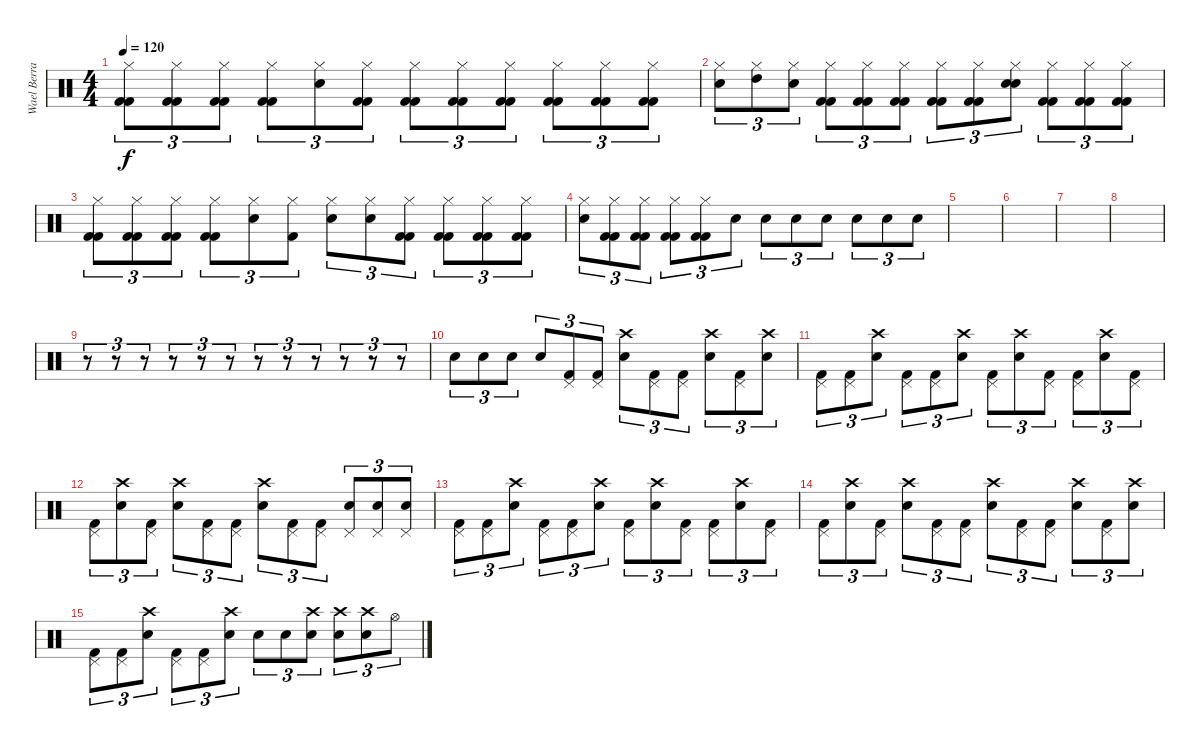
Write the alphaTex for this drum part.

\track ("Wael Berrais" "Wael Berra") {instrument percussion}
\staff {score}
\articulation defaults
\ts (4 4)
\tempo 120
\clef neutral
\ks c
("Hi-Hat (closed)" "Kick (hit) 2" "Kick (hit) 2").8{tu (3 2) dy f} ("Hi-Hat (closed)" "Kick (hit) 2" "Kick (hit) 2").8{tu (3 2)} ("Hi-Hat (closed)" "Kick (hit) 2" "Kick (hit) 2").8{tu (3 2)} ("Hi-Hat (closed)" "Kick (hit) 2" "Kick (hit) 2").8{tu (3 2)} ("Electric Snare (hit)" "Hi-Hat (closed)").8{tu (3 2)} ("Hi-Hat (closed)" "Kick (hit) 2" "Kick (hit) 2").8{tu (3 2)} ("Hi-Hat (closed)" "Kick (hit) 2" "Kick (hit) 2").8{tu (3 2)} ("Hi-Hat (closed)" "Kick (hit) 2" "Kick (hit) 2").8{tu (3 2)} ("Hi-Hat (closed)" "Kick (hit) 2" "Kick (hit) 2").8{tu (3 2)} ("Hi-Hat (closed)" "Kick (hit) 2" "Kick (hit) 2").8{tu (3 2)} ("Hi-Hat (closed)" "Kick (hit) 2" "Kick (hit) 2").8{tu (3 2)} ("Hi-Hat (closed)" "Kick (hit) 2" "Kick (hit) 2").8{tu (3 2)} |
("Electric Snare (hit)" "Hi-Hat (closed)").8{tu (3 2)} ("High Tom (hit)" "Hi-Hat (closed)").8{tu (3 2)} ("Electric Snare (hit)" "Hi-Hat (closed)").8{tu (3 2)} ("Hi-Hat (closed)" "Kick (hit) 2" "Kick (hit) 2").8{tu (3 2)} ("Hi-Hat (closed)" "Kick (hit) 2" "Kick (hit) 2").8{tu (3 2)} ("Hi-Hat (closed)" "Kick (hit) 2" "Kick (hit) 2").8{tu (3 2)} ("Hi-Hat (closed)" "Kick (hit) 2" "Kick (hit) 2").8{tu (3 2)} ("Hi-Hat (closed)" "Kick (hit) 2" "Kick (hit) 2").8{tu (3 2)} ("Hi-Hat (closed)" "Electric Snare (hit)" "Electric Snare (hit)").8{tu (3 2)} ("Hi-Hat (closed)" "Kick (hit) 2" "Kick (hit) 2").8{tu (3 2)} ("Hi-Hat (closed)" "Kick (hit) 2" "Kick (hit) 2").8{tu (3 2)} ("Hi-Hat (closed)" "Kick (hit) 2" "Kick (hit) 2").8{tu (3 2)} |
("Hi-Hat (closed)" "Kick (hit) 2" "Kick (hit) 2").8{tu (3 2)} ("Hi-Hat (closed)" "Kick (hit) 2" "Kick (hit) 2").8{tu (3 2)} ("Hi-Hat (closed)" "Kick (hit) 2" "Kick (hit) 2").8{tu (3 2)} ("Hi-Hat (closed)" "Kick (hit) 2" "Kick (hit) 2").8{tu (3 2)} ("Hi-Hat (closed)" "Electric Snare (hit)").8{tu (3 2)} ("Hi-Hat (closed)" "Kick (hit) 2").8{tu (3 2)} ("Hi-Hat (closed)" "Electric Snare (hit)").8{tu (3 2)} ("Hi-Hat (closed)" "Electric Snare (hit)").8{tu (3 2)} ("Hi-Hat (closed)" "Kick (hit) 2" "Kick (hit) 2").8{tu (3 2)} ("Hi-Hat (closed)" "Kick (hit) 2" "Kick (hit) 2").8{tu (3 2)} ("Hi-Hat (closed)" "Kick (hit) 2" "Kick (hit) 2").8{tu (3 2)} ("Hi-Hat (closed)" "Kick (hit) 2" "Kick (hit) 2").8{tu (3 2)} |
("Hi-Hat (closed)" "Electric Snare (hit)").8{tu (3 2)} ("Hi-Hat (closed)" "Kick (hit) 2" "Kick (hit) 2").8{tu (3 2)} ("Hi-Hat (closed)" "Kick (hit) 2" "Kick (hit) 2").8{tu (3 2)} ("Hi-Hat (closed)" "Kick (hit) 2" "Kick (hit) 2").8{tu (3 2)} ("Hi-Hat (closed)" "Kick (hit) 2" "Kick (hit) 2").8{tu (3 2)} "Electric Snare (hit)".8{tu (3 2)} "Electric Snare (hit)".8{tu (3 2)} "Electric Snare (hit)".8{tu (3 2)} "Electric Snare (hit)".8{tu (3 2)} "Electric Snare (hit)".8{tu (3 2)} "Electric Snare (hit)".8{tu (3 2)} "Electric Snare (hit)".8{tu (3 2)} |
|
|
|
|
r.8{tu (3 2)} r.8{tu (3 2)} r.8{tu (3 2)} r.8{tu (3 2)} r.8{tu (3 2)} r.8{tu (3 2)} r.8{tu (3 2)} r.8{tu (3 2)} r.8{tu (3 2)} r.8{tu (3 2)} r.8{tu (3 2)} r.8{tu (3 2)} |
"Electric Snare (hit)".8{tu (3 2)} "Electric Snare (hit)".8{tu (3 2)} "Electric Snare (hit)".8{tu (3 2)} "Electric Snare (hit)".8{tu (3 2)} ("Kick (hit) 2" "Pedal Hi-Hat (hit)").8{tu (3 2)} ("Kick (hit) 2" "Pedal Hi-Hat (hit)").8{tu (3 2)} ("Electric Snare (hit)" "Crash high (hit)").8{tu (3 2)} ("Kick (hit) 2" "Pedal Hi-Hat (hit)").8{tu (3 2)} ("Kick (hit) 2" "Pedal Hi-Hat (hit)").8{tu (3 2)} ("Electric Snare (hit)" "Crash high (hit)").8{tu (3 2)} ("Kick (hit) 2" "Pedal Hi-Hat (hit)").8{tu (3 2)} ("Electric Snare (hit)" "Crash high (hit)").8{tu (3 2)} |
("Kick (hit) 2" "Pedal Hi-Hat (hit)").8{tu (3 2)} ("Kick (hit) 2" "Pedal Hi-Hat (hit)").8{tu (3 2)} ("Electric Snare (hit)" "Crash high (hit)").8{tu (3 2)} ("Kick (hit) 2" "Pedal Hi-Hat (hit)").8{tu (3 2)} ("Kick (hit) 2" "Pedal Hi-Hat (hit)").8{tu (3 2)} ("Electric Snare (hit)" "Crash high (hit)").8{tu (3 2)} ("Kick (hit) 2" "Pedal Hi-Hat (hit)").8{tu (3 2)} ("Electric Snare (hit)" "Crash high (hit)").8{tu (3 2)} ("Kick (hit) 2" "Pedal Hi-Hat (hit)").8{tu (3 2)} ("Kick (hit) 2" "Pedal Hi-Hat (hit)").8{tu (3 2)} ("Electric Snare (hit)" "Crash high (hit)").8{tu (3 2)} ("Kick (hit) 2" "Pedal Hi-Hat (hit)").8{tu (3 2)} |
("Kick (hit) 2" "Pedal Hi-Hat (hit)").8{tu (3 2)} ("Electric Snare (hit)" "Crash high (hit)").8{tu (3 2)} ("Kick (hit) 2" "Pedal Hi-Hat (hit)").8{tu (3 2)} ("Electric Snare (hit)" "Crash high (hit)").8{tu (3 2)} ("Kick (hit) 2" "Pedal Hi-Hat (hit)").8{tu (3 2)} ("Kick (hit) 2" "Pedal Hi-Hat (hit)").8{tu (3 2)} ("Electric Snare (hit)" "Crash high (hit)").8{tu (3 2)} ("Kick (hit) 2" "Pedal Hi-Hat (hit)").8{tu (3 2)} ("Kick (hit) 2" "Pedal Hi-Hat (hit)").8{tu (3 2)} ("Electric Snare (hit)" "Pedal Hi-Hat (hit)").8{tu (3 2)} ("Electric Snare (hit)" "Pedal Hi-Hat (hit)").8{tu (3 2)} ("Electric Snare (hit)" "Pedal Hi-Hat (hit)").8{tu (3 2)} |
("Kick (hit) 2" "Pedal Hi-Hat (hit)").8{tu (3 2)} ("Kick (hit) 2" "Pedal Hi-Hat (hit)").8{tu (3 2)} ("Electric Snare (hit)" "Crash high (hit)").8{tu (3 2)} ("Kick (hit) 2" "Pedal Hi-Hat (hit)").8{tu (3 2)} ("Kick (hit) 2" "Pedal Hi-Hat (hit)").8{tu (3 2)} ("Electric Snare (hit)" "Crash high (hit)").8{tu (3 2)} ("Kick (hit) 2" "Pedal Hi-Hat (hit)").8{tu (3 2)} ("Electric Snare (hit)" "Crash high (hit)").8{tu (3 2)} ("Kick (hit) 2" "Pedal Hi-Hat (hit)").8{tu (3 2)} ("Kick (hit) 2" "Pedal Hi-Hat (hit)").8{tu (3 2)} ("Electric Snare (hit)" "Crash high (hit)").8{tu (3 2)} ("Kick (hit) 2" "Pedal Hi-Hat (hit)").8{tu (3 2)} |
("Kick (hit) 2" "Pedal Hi-Hat (hit)").8{tu (3 2)} ("Electric Snare (hit)" "Crash high (hit)").8{tu (3 2)} ("Kick (hit) 2" "Pedal Hi-Hat (hit)").8{tu (3 2)} ("Electric Snare (hit)" "Crash high (hit)").8{tu (3 2)} ("Kick (hit) 2" "Pedal Hi-Hat (hit)").8{tu (3 2)} ("Kick (hit) 2" "Pedal Hi-Hat (hit)").8{tu (3 2)} ("Electric Snare (hit)" "Crash high (hit)").8{tu (3 2)} ("Kick (hit) 2" "Pedal Hi-Hat (hit)").8{tu (3 2)} ("Kick (hit) 2" "Pedal Hi-Hat (hit)").8{tu (3 2)} ("Electric Snare (hit)" "Crash high (hit)").8{tu (3 2)} ("Kick (hit) 2" "Pedal Hi-Hat (hit)").8{tu (3 2)} ("Electric Snare (hit)" "Crash high (hit)").8{tu (3 2)} |
("Kick (hit) 2" "Pedal Hi-Hat (hit)").8{tu (3 2)} ("Kick (hit) 2" "Pedal Hi-Hat (hit)").8{tu (3 2)} ("Electric Snare (hit)" "Crash high (hit)").8{tu (3 2)} ("Kick (hit) 2" "Pedal Hi-Hat (hit)").8{tu (3 2)} ("Kick (hit) 2" "Pedal Hi-Hat (hit)").8{tu (3 2)} ("Electric Snare (hit)" "Crash high (hit)").8{tu (3 2)} "Electric Snare (hit)".8{tu (3 2)} "Electric Snare (hit)".8{tu (3 2)} ("Electric Snare (hit)"{x} "Crash high (hit)"{x}).8{tu (3 2)} ("Electric Snare (hit)"{x} "Crash high (hit)"{x}).8{tu (3 2)} ("Electric Snare (hit)"{x} "Crash high (hit)"{x}).8{tu (3 2)} "Hi-Hat (open)"{x}.8{tu (3 2)}
